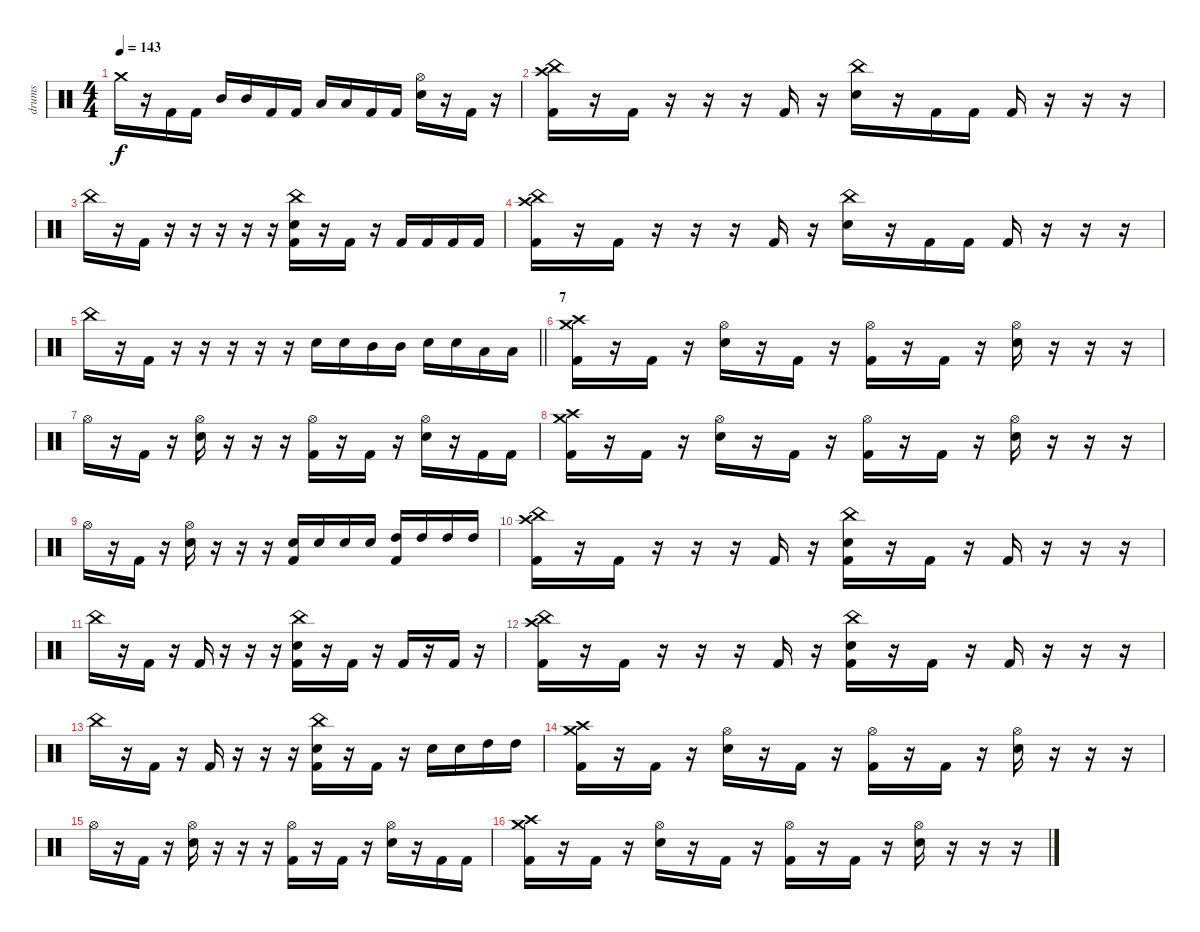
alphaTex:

\track ("drums" "drums") {instrument percussion}
\staff {score}
\articulation defaults
\ts (4 4)
\tempo 143
\clef neutral
\ks c "Crash medium (hit)".16{dy f}
r.16 "Kick (hit) 2".16 "Kick (hit) 2".16 "Mid Tom (hit)".16 "Mid Tom (hit)".16 "Kick (hit) 2".16 "Kick (hit) 2".16 "Low Floor Tom (hit)".16 "Low Floor Tom (hit)".16 "Kick (hit) 2".16 "Kick (hit) 2".16 ("Hi-Hat (open)" "Electric Snare (hit)").16 r.16 "Kick (hit) 2".16 r.16 |
("China (hit)" "Crash high (hit)" "Kick (hit) 2").16 r.16 "Kick (hit) 2".16 r.16 r.16 r.16 "Kick (hit) 2".16 r.16 ("China (hit)" "Electric Snare (hit)").16 r.16 "Kick (hit) 2".16 "Kick (hit) 2".16 "Kick (hit) 2".16 r.16 r.16 r.16 |
"China (hit)".16 r.16 "Kick (hit) 2".16 r.16 r.16 r.16 r.16 r.16 ("China (hit)" "Electric Snare (hit)" "Kick (hit) 2").16 r.16 "Kick (hit) 2".16 r.16 "Kick (hit) 2".16 "Kick (hit) 2".16 "Kick (hit) 2".16 "Kick (hit) 2".16 |
("China (hit)" "Crash high (hit)" "Kick (hit) 2").16 r.16 "Kick (hit) 2".16 r.16 r.16 r.16 "Kick (hit) 2".16 r.16 ("China (hit)" "Electric Snare (hit)").16 r.16 "Kick (hit) 2".16 "Kick (hit) 2".16 "Kick (hit) 2".16 r.16 r.16 r.16 |
\barLineRight lightlight "China (hit)".16
r.16 "Kick (hit) 2".16 r.16 r.16 r.16 r.16 r.16 "Electric Snare (hit)".16 "Electric Snare (hit)".16 "Mid Tom (hit)".16 "Mid Tom (hit)".16 "Electric Snare (hit)".16 "Electric Snare (hit)".16 "Low Floor Tom (hit)".16 "Low Floor Tom (hit)".16 |
\section ("" "7")
("Crash medium (hit)" "Crash high (hit)" "Kick (hit) 2").16 r.16 "Kick (hit) 2".16 r.16 ("Hi-Hat (open)" "Electric Snare (hit)").16 r.16 "Kick (hit) 2".16 r.16 ("Hi-Hat (open)" "Kick (hit) 2").16 r.16 "Kick (hit) 2".16 r.16 ("Hi-Hat (open)" "Electric Snare (hit)").16 r.16 r.16 r.16 |
"Hi-Hat (open)".16 r.16 "Kick (hit) 2".16 r.16 ("Hi-Hat (open)" "Electric Snare (hit)").16 r.16 r.16 r.16 ("Hi-Hat (open)" "Kick (hit) 2").16 r.16 "Kick (hit) 2".16 r.16 ("Hi-Hat (open)" "Electric Snare (hit)").16 r.16 "Kick (hit) 2".16 "Kick (hit) 2".16 |
("Crash medium (hit)" "Crash high (hit)" "Kick (hit) 2").16 r.16 "Kick (hit) 2".16 r.16 ("Hi-Hat (open)" "Electric Snare (hit)").16 r.16 "Kick (hit) 2".16 r.16 ("Hi-Hat (open)" "Kick (hit) 2").16 r.16 "Kick (hit) 2".16 r.16 ("Hi-Hat (open)" "Electric Snare (hit)").16 r.16 r.16 r.16 |
"Hi-Hat (open)".16 r.16 "Kick (hit) 2".16 r.16 ("Hi-Hat (open)" "Electric Snare (hit)").16 r.16 r.16 r.16 ("Electric Snare (hit)" "Kick (hit) 2").16 "Electric Snare (hit)".16 "Electric Snare (hit)".16 "Electric Snare (hit)".16 ("High Tom (hit)" "Kick (hit) 2").16 "High Tom (hit)".16 "High Tom (hit)".16 "High Tom (hit)".16 |
("China (hit)" "Crash high (hit)" "Kick (hit) 2").16 r.16 "Kick (hit) 2".16 r.16 r.16 r.16 "Kick (hit) 2".16 r.16 ("China (hit)" "Electric Snare (hit)" "Kick (hit) 2").16 r.16 "Kick (hit) 2".16 r.16 "Kick (hit) 2".16 r.16 r.16 r.16 |
"China (hit)".16 r.16 "Kick (hit) 2".16 r.16 "Kick (hit) 2".16 r.16 r.16 r.16 ("China (hit)" "Electric Snare (hit)" "Kick (hit) 2").16 r.16 "Kick (hit) 2".16 r.16 "Kick (hit) 2".16 r.16 "Kick (hit) 2".16 r.16 |
("China (hit)" "Crash high (hit)" "Kick (hit) 2").16 r.16 "Kick (hit) 2".16 r.16 r.16 r.16 "Kick (hit) 2".16 r.16 ("China (hit)" "Electric Snare (hit)" "Kick (hit) 2").16 r.16 "Kick (hit) 2".16 r.16 "Kick (hit) 2".16 r.16 r.16 r.16 |
"China (hit)".16 r.16 "Kick (hit) 2".16 r.16 "Kick (hit) 2".16 r.16 r.16 r.16 ("China (hit)" "Electric Snare (hit)" "Kick (hit) 2").16 r.16 "Kick (hit) 2".16 r.16 "Electric Snare (hit)".16 "Electric Snare (hit)".16 "High Tom (hit)".16 "High Tom (hit)".16 |
("Crash medium (hit)" "Crash high (hit)" "Kick (hit) 2").16 r.16 "Kick (hit) 2".16 r.16 ("Hi-Hat (open)" "Electric Snare (hit)").16 r.16 "Kick (hit) 2".16 r.16 ("Hi-Hat (open)" "Kick (hit) 2").16 r.16 "Kick (hit) 2".16 r.16 ("Hi-Hat (open)" "Electric Snare (hit)").16 r.16 r.16 r.16 |
"Hi-Hat (open)".16 r.16 "Kick (hit) 2".16 r.16 ("Hi-Hat (open)" "Electric Snare (hit)").16 r.16 r.16 r.16 ("Hi-Hat (open)" "Kick (hit) 2").16 r.16 "Kick (hit) 2".16 r.16 ("Hi-Hat (open)" "Electric Snare (hit)").16 r.16 "Kick (hit) 2".16 "Kick (hit) 2".16 |
("Crash medium (hit)" "Crash high (hit)" "Kick (hit) 2").16 r.16 "Kick (hit) 2".16 r.16 ("Hi-Hat (open)" "Electric Snare (hit)").16 r.16 "Kick (hit) 2".16 r.16 ("Hi-Hat (open)" "Kick (hit) 2").16 r.16 "Kick (hit) 2".16 r.16 ("Hi-Hat (open)" "Electric Snare (hit)").16 r.16 r.16 r.16
